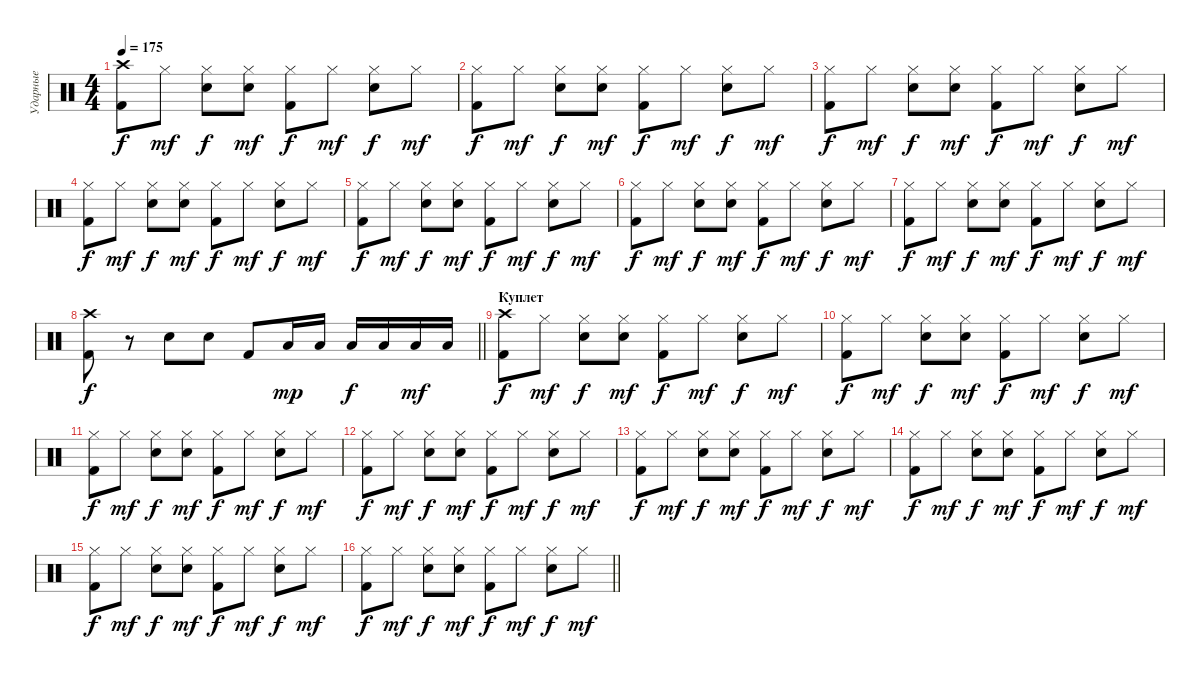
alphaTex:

\track ("Ударные" "Ударные") {instrument percussion}
\staff {score}
\articulation defaults
\ts (4 4)
\section ("" "")
\tempo 175
\clef neutral
\ks c
("Crash high (hit)" "Kick (hit) 2").8{dy f} "Hi-Hat (closed)".8{dy mf} ("Hi-Hat (closed)" "Snare (hit) 2").8{dy f} ("Hi-Hat (closed)" "Snare (hit) 2").8{dy mf} ("Hi-Hat (closed)" "Kick (hit) 2").8{dy f} "Hi-Hat (closed)".8{dy mf} ("Hi-Hat (closed)" "Snare (hit) 2").8{dy f} "Hi-Hat (closed)".8{dy mf} |
("Hi-Hat (closed)" "Kick (hit) 2").8{dy f} "Hi-Hat (closed)".8{dy mf} ("Hi-Hat (closed)" "Snare (hit) 2").8{dy f} ("Hi-Hat (closed)" "Snare (hit) 2").8{dy mf} ("Hi-Hat (closed)" "Kick (hit) 2").8{dy f} "Hi-Hat (closed)".8{dy mf} ("Hi-Hat (closed)" "Snare (hit) 2").8{dy f} "Hi-Hat (closed)".8{dy mf} |
("Hi-Hat (closed)" "Kick (hit) 2").8{dy f} "Hi-Hat (closed)".8{dy mf} ("Hi-Hat (closed)" "Snare (hit) 2").8{dy f} ("Hi-Hat (closed)" "Snare (hit) 2").8{dy mf} ("Hi-Hat (closed)" "Kick (hit) 2").8{dy f} "Hi-Hat (closed)".8{dy mf} ("Hi-Hat (closed)" "Snare (hit) 2").8{dy f} "Hi-Hat (closed)".8{dy mf} |
("Hi-Hat (closed)" "Kick (hit) 2").8{dy f} "Hi-Hat (closed)".8{dy mf} ("Hi-Hat (closed)" "Snare (hit) 2").8{dy f} ("Hi-Hat (closed)" "Snare (hit) 2").8{dy mf} ("Hi-Hat (closed)" "Kick (hit) 2").8{dy f} "Hi-Hat (closed)".8{dy mf} ("Hi-Hat (closed)" "Snare (hit) 2").8{dy f} "Hi-Hat (closed)".8{dy mf} |
("Hi-Hat (closed)" "Kick (hit) 2").8{dy f} "Hi-Hat (closed)".8{dy mf} ("Hi-Hat (closed)" "Snare (hit) 2").8{dy f} ("Hi-Hat (closed)" "Snare (hit) 2").8{dy mf} ("Hi-Hat (closed)" "Kick (hit) 2").8{dy f} "Hi-Hat (closed)".8{dy mf} ("Hi-Hat (closed)" "Snare (hit) 2").8{dy f} "Hi-Hat (closed)".8{dy mf} |
("Hi-Hat (closed)" "Kick (hit) 2").8{dy f} "Hi-Hat (closed)".8{dy mf} ("Hi-Hat (closed)" "Snare (hit) 2").8{dy f} ("Hi-Hat (closed)" "Snare (hit) 2").8{dy mf} ("Hi-Hat (closed)" "Kick (hit) 2").8{dy f} "Hi-Hat (closed)".8{dy mf} ("Hi-Hat (closed)" "Snare (hit) 2").8{dy f} "Hi-Hat (closed)".8{dy mf} |
("Hi-Hat (closed)" "Kick (hit) 2").8{dy f} "Hi-Hat (closed)".8{dy mf} ("Hi-Hat (closed)" "Snare (hit) 2").8{dy f} ("Hi-Hat (closed)" "Snare (hit) 2").8{dy mf} ("Hi-Hat (closed)" "Kick (hit) 2").8{dy f} "Hi-Hat (closed)".8{dy mf} ("Hi-Hat (closed)" "Snare (hit) 2").8{dy f} "Hi-Hat (closed)".8{dy mf} |
\barLineRight lightlight
("Crash high (hit)" "Kick (hit) 2").8{dy f} r.8 "Snare (hit) 2".8 "Snare (hit) 2".8 "Kick (hit) 2".8 "Low Tom (hit)".16{dy mp} "Low Tom (hit)".16 "Low Tom (hit)".16{dy f} "Low Tom (hit)".16 "Low Tom (hit)".16{dy mf} "Low Tom (hit)".16 |
\section ("" "Куплет")
("Crash high (hit)" "Kick (hit) 2").8{dy f} "Hi-Hat (closed)".8{dy mf} ("Hi-Hat (closed)" "Snare (hit) 2").8{dy f} ("Hi-Hat (closed)" "Snare (hit) 2").8{dy mf} ("Hi-Hat (closed)" "Kick (hit) 2").8{dy f} "Hi-Hat (closed)".8{dy mf} ("Hi-Hat (closed)" "Snare (hit) 2").8{dy f} "Hi-Hat (closed)".8{dy mf} |
("Hi-Hat (closed)" "Kick (hit) 2").8{dy f} "Hi-Hat (closed)".8{dy mf} ("Hi-Hat (closed)" "Snare (hit) 2").8{dy f} ("Hi-Hat (closed)" "Snare (hit) 2").8{dy mf} ("Hi-Hat (closed)" "Kick (hit) 2").8{dy f} "Hi-Hat (closed)".8{dy mf} ("Hi-Hat (closed)" "Snare (hit) 2").8{dy f} "Hi-Hat (closed)".8{dy mf} |
("Hi-Hat (closed)" "Kick (hit) 2").8{dy f} "Hi-Hat (closed)".8{dy mf} ("Hi-Hat (closed)" "Snare (hit) 2").8{dy f} ("Hi-Hat (closed)" "Snare (hit) 2").8{dy mf} ("Hi-Hat (closed)" "Kick (hit) 2").8{dy f} "Hi-Hat (closed)".8{dy mf} ("Hi-Hat (closed)" "Snare (hit) 2").8{dy f} "Hi-Hat (closed)".8{dy mf} |
("Hi-Hat (closed)" "Kick (hit) 2").8{dy f} "Hi-Hat (closed)".8{dy mf} ("Hi-Hat (closed)" "Snare (hit) 2").8{dy f} ("Hi-Hat (closed)" "Snare (hit) 2").8{dy mf} ("Hi-Hat (closed)" "Kick (hit) 2").8{dy f} "Hi-Hat (closed)".8{dy mf} ("Hi-Hat (closed)" "Snare (hit) 2").8{dy f} "Hi-Hat (closed)".8{dy mf} |
("Hi-Hat (closed)" "Kick (hit) 2").8{dy f} "Hi-Hat (closed)".8{dy mf} ("Hi-Hat (closed)" "Snare (hit) 2").8{dy f} ("Hi-Hat (closed)" "Snare (hit) 2").8{dy mf} ("Hi-Hat (closed)" "Kick (hit) 2").8{dy f} "Hi-Hat (closed)".8{dy mf} ("Hi-Hat (closed)" "Snare (hit) 2").8{dy f} "Hi-Hat (closed)".8{dy mf} |
("Hi-Hat (closed)" "Kick (hit) 2").8{dy f} "Hi-Hat (closed)".8{dy mf} ("Hi-Hat (closed)" "Snare (hit) 2").8{dy f} ("Hi-Hat (closed)" "Snare (hit) 2").8{dy mf} ("Hi-Hat (closed)" "Kick (hit) 2").8{dy f} "Hi-Hat (closed)".8{dy mf} ("Hi-Hat (closed)" "Snare (hit) 2").8{dy f} "Hi-Hat (closed)".8{dy mf} |
("Hi-Hat (closed)" "Kick (hit) 2").8{dy f} "Hi-Hat (closed)".8{dy mf} ("Hi-Hat (closed)" "Snare (hit) 2").8{dy f} ("Hi-Hat (closed)" "Snare (hit) 2").8{dy mf} ("Hi-Hat (closed)" "Kick (hit) 2").8{dy f} "Hi-Hat (closed)".8{dy mf} ("Hi-Hat (closed)" "Snare (hit) 2").8{dy f} "Hi-Hat (closed)".8{dy mf} |
\barLineRight lightlight
("Hi-Hat (closed)" "Kick (hit) 2").8{dy f} "Hi-Hat (closed)".8{dy mf} ("Hi-Hat (closed)" "Snare (hit) 2").8{dy f} ("Hi-Hat (closed)" "Snare (hit) 2").8{dy mf} ("Hi-Hat (closed)" "Kick (hit) 2").8{dy f} "Hi-Hat (closed)".8{dy mf} ("Hi-Hat (closed)" "Snare (hit) 2").8{dy f} "Hi-Hat (closed)".8{dy mf}
